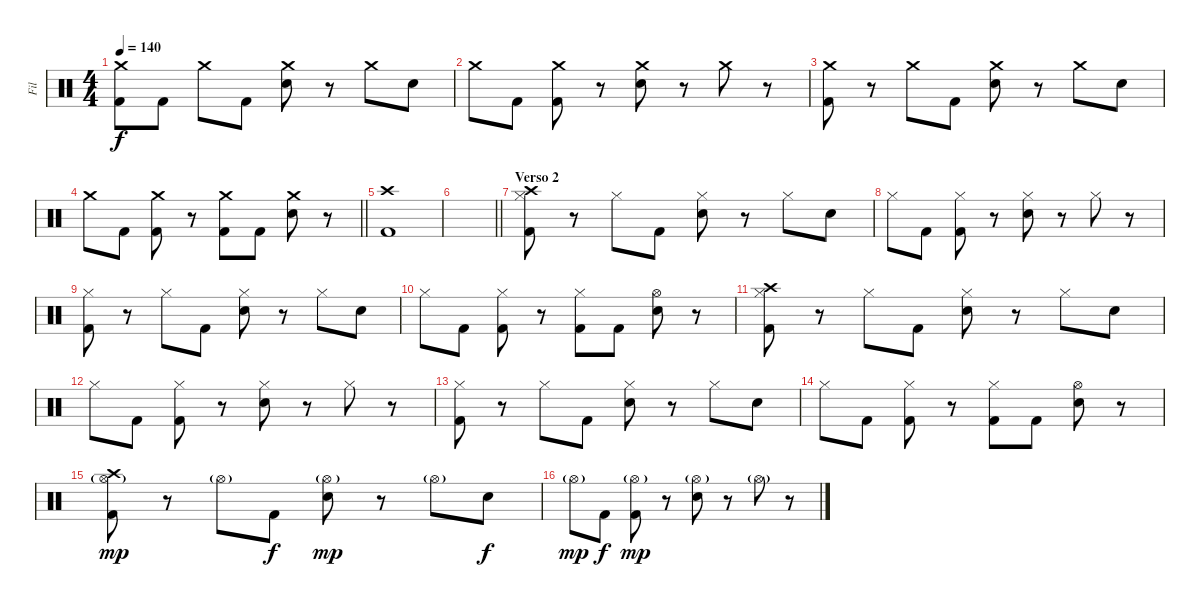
\track ("Fil" "Fil") {instrument percussion}
\staff {score}
\articulation defaults
\ts (4 4)
\tempo 140
\clef neutral
\ks c
("Crash medium (hit)" "Kick (hit) 2").8{dy f} "Kick (hit) 2".8 "Crash medium (hit)".8 "Kick (hit) 2".8 ("Crash medium (hit)" "Electric Snare (hit)").8 r.8 "Crash medium (hit)".8 "Electric Snare (hit)".8 |
"Crash medium (hit)".8 "Kick (hit) 2".8 ("Crash medium (hit)" "Kick (hit) 2").8 r.8 ("Crash medium (hit)" "Electric Snare (hit)").8 r.8 "Crash medium (hit)".8 r.8 |
("Crash medium (hit)" "Kick (hit) 2").8 r.8 "Crash medium (hit)".8 "Kick (hit) 2".8 ("Crash medium (hit)" "Electric Snare (hit)").8 r.8 "Crash medium (hit)".8 "Electric Snare (hit)".8 |
\barLineRight lightlight "Crash medium (hit)".8 "Kick (hit) 2".8
("Crash medium (hit)" "Kick (hit) 2").8 r.8 ("Crash medium (hit)" "Kick (hit) 2").8 "Kick (hit) 2".8 ("Crash medium (hit)" "Electric Snare (hit)").8 r.8 |
\section ("" "")
("Crash high (hit)" "Kick (hit) 2").1 |
\barLineRight lightlight
|
\section ("" "Verso 2")
("Crash high (hit)" "Hi-Hat (closed)" "Kick (hit) 2").8 r.8 "Hi-Hat (closed)".8 "Kick (hit) 2".8 ("Hi-Hat (closed)" "Electric Snare (hit)").8 r.8 "Hi-Hat (closed)".8 "Electric Snare (hit)".8 |
"Hi-Hat (closed)".8 "Kick (hit) 2".8 ("Hi-Hat (closed)" "Kick (hit) 2").8 r.8 ("Hi-Hat (closed)" "Electric Snare (hit)").8 r.8 "Hi-Hat (closed)".8 r.8 |
("Hi-Hat (closed)" "Kick (hit) 2").8 r.8 "Hi-Hat (closed)".8 "Kick (hit) 2".8 ("Hi-Hat (closed)" "Electric Snare (hit)").8 r.8 "Hi-Hat (closed)".8 "Electric Snare (hit)".8 |
"Hi-Hat (closed)".8 "Kick (hit) 2".8 ("Hi-Hat (closed)" "Kick (hit) 2").8 r.8 ("Hi-Hat (closed)" "Kick (hit) 2").8 "Kick (hit) 2".8 ("Hi-Hat (open)" "Electric Snare (hit)").8 r.8 |
("Crash high (hit)" "Hi-Hat (closed)" "Kick (hit) 2").8 r.8 "Hi-Hat (closed)".8 "Kick (hit) 2".8 ("Hi-Hat (closed)" "Electric Snare (hit)").8 r.8 "Hi-Hat (closed)".8 "Electric Snare (hit)".8 |
"Hi-Hat (closed)".8 "Kick (hit) 2".8 ("Hi-Hat (closed)" "Kick (hit) 2").8 r.8 ("Hi-Hat (closed)" "Electric Snare (hit)").8 r.8 "Hi-Hat (closed)".8 r.8 |
("Hi-Hat (closed)" "Kick (hit) 2").8 r.8 "Hi-Hat (closed)".8 "Kick (hit) 2".8 ("Hi-Hat (closed)" "Electric Snare (hit)").8 r.8 "Hi-Hat (closed)".8 "Electric Snare (hit)".8 |
"Hi-Hat (closed)".8 "Kick (hit) 2".8 ("Hi-Hat (closed)" "Kick (hit) 2").8 r.8 ("Hi-Hat (closed)" "Kick (hit) 2").8 "Kick (hit) 2".8 ("Hi-Hat (open)" "Electric Snare (hit)").8 r.8 |
("Crash high (hit)" "Hi-Hat (open)"{g} "Kick (hit) 2").8{dy mp} r.8 "Hi-Hat (open)"{g}.8 "Kick (hit) 2".8{dy f} ("Hi-Hat (open)"{g} "Electric Snare (hit)").8{dy mp} r.8 "Hi-Hat (open)"{g}.8 "Electric Snare (hit)".8{dy f} |
"Hi-Hat (open)"{g}.8{dy mp} "Kick (hit) 2".8{dy f} ("Hi-Hat (open)"{g} "Kick (hit) 2").8{dy mp} r.8 ("Hi-Hat (open)"{g} "Electric Snare (hit)").8 r.8 "Hi-Hat (open)"{g}.8 r.8
